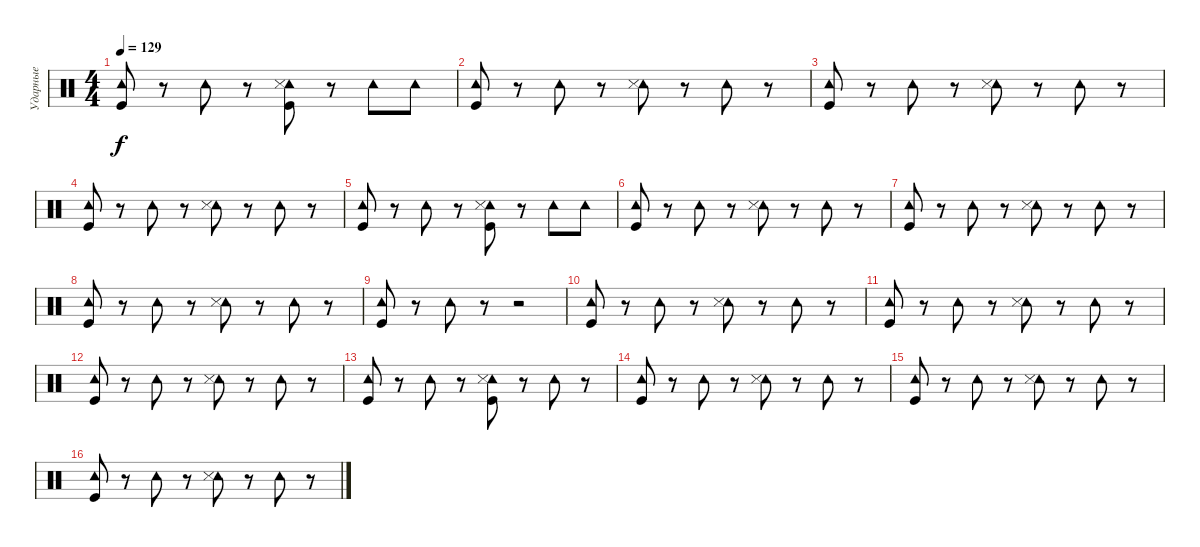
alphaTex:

\track ("Ударные" "Ударные") {instrument percussion}
\staff {score}
\articulation defaults
\ts (4 4)
\tempo 129
\clef neutral
\ks c
("Tambourine (hit)" "Kick (hit)").8{dy f} r.8 "Tambourine (hit)".8 r.8 ("Tambourine (hit)" "Snare (side stick) 3" "Kick (hit)").8 r.8 "Tambourine (hit)".8 "Tambourine (hit)".8 |
("Tambourine (hit)" "Kick (hit)").8 r.8 "Tambourine (hit)".8 r.8 ("Tambourine (hit)" "Snare (side stick) 3").8 r.8 "Tambourine (hit)".8 r.8 |
("Tambourine (hit)" "Kick (hit)").8 r.8 "Tambourine (hit)".8 r.8 ("Tambourine (hit)" "Snare (side stick) 3").8 r.8 "Tambourine (hit)".8 r.8 |
("Tambourine (hit)" "Kick (hit)").8 r.8 "Tambourine (hit)".8 r.8 ("Tambourine (hit)" "Snare (side stick) 3").8 r.8 "Tambourine (hit)".8 r.8 |
("Tambourine (hit)" "Kick (hit)").8 r.8 "Tambourine (hit)".8 r.8 ("Tambourine (hit)" "Snare (side stick) 3" "Kick (hit)").8 r.8 "Tambourine (hit)".8 "Tambourine (hit)".8 |
("Tambourine (hit)" "Kick (hit)").8 r.8 "Tambourine (hit)".8 r.8 ("Tambourine (hit)" "Snare (side stick) 3").8 r.8 "Tambourine (hit)".8 r.8 |
("Tambourine (hit)" "Kick (hit)").8 r.8 "Tambourine (hit)".8 r.8 ("Tambourine (hit)" "Snare (side stick) 3").8 r.8 "Tambourine (hit)".8 r.8 |
("Tambourine (hit)" "Kick (hit)").8 r.8 "Tambourine (hit)".8 r.8 ("Tambourine (hit)" "Snare (side stick) 3").8 r.8 "Tambourine (hit)".8 r.8 |
("Tambourine (hit)" "Kick (hit)").8 r.8 "Tambourine (hit)".8 r.8 r.2 |
("Tambourine (hit)" "Kick (hit)").8 r.8 "Tambourine (hit)".8 r.8 ("Tambourine (hit)" "Snare (side stick) 3").8 r.8 "Tambourine (hit)".8 r.8 |
("Tambourine (hit)" "Kick (hit)").8 r.8 "Tambourine (hit)".8 r.8 ("Tambourine (hit)" "Snare (side stick) 3").8 r.8 "Tambourine (hit)".8 r.8 |
("Tambourine (hit)" "Kick (hit)").8 r.8 "Tambourine (hit)".8 r.8 ("Tambourine (hit)" "Snare (side stick) 3").8 r.8 "Tambourine (hit)".8 r.8 |
("Tambourine (hit)" "Kick (hit)").8 r.8 "Tambourine (hit)".8 r.8 ("Tambourine (hit)" "Snare (side stick) 3" "Kick (hit)").8 r.8 "Tambourine (hit)".8 r.8 |
("Tambourine (hit)" "Kick (hit)").8 r.8 "Tambourine (hit)".8 r.8 ("Tambourine (hit)" "Snare (side stick) 3").8 r.8 "Tambourine (hit)".8 r.8 |
("Tambourine (hit)" "Kick (hit)").8 r.8 "Tambourine (hit)".8 r.8 ("Tambourine (hit)" "Snare (side stick) 3").8 r.8 "Tambourine (hit)".8 r.8 |
("Tambourine (hit)" "Kick (hit)").8 r.8 "Tambourine (hit)".8 r.8 ("Tambourine (hit)" "Snare (side stick) 3").8 r.8 "Tambourine (hit)".8 r.8
